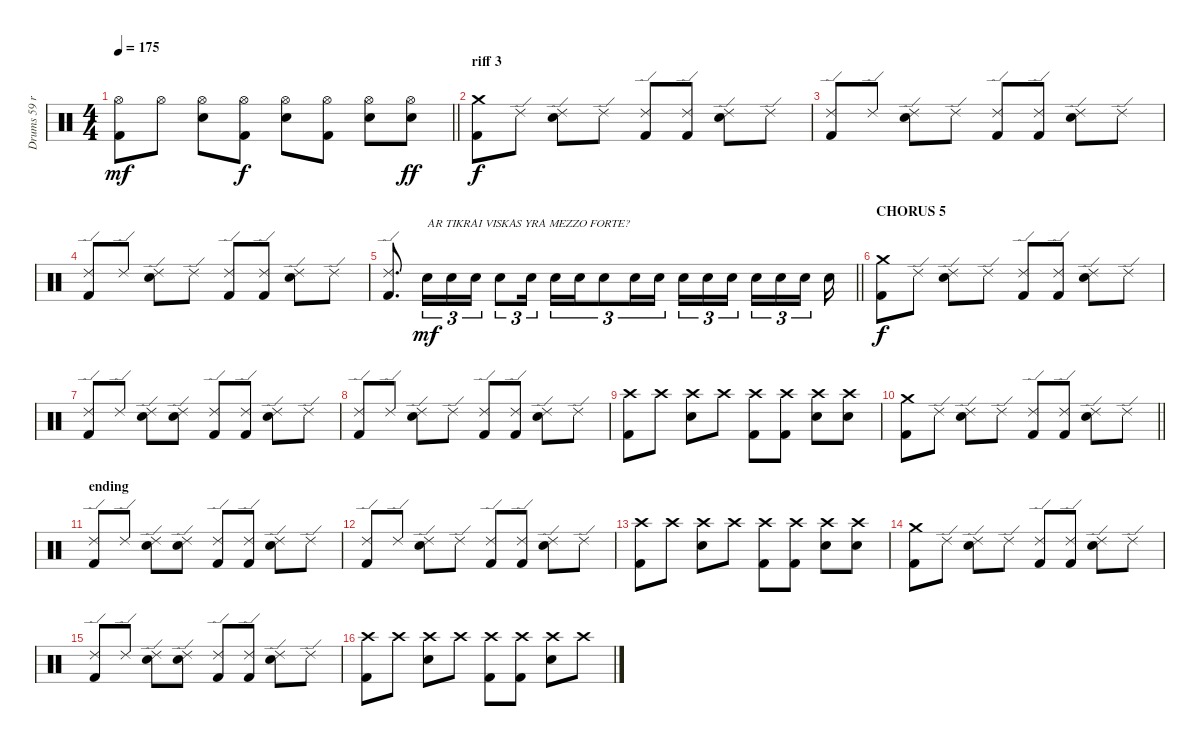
\track ("Drums 59 ride" "Drums 59 r") {instrument percussion}
\staff {score}
\articulation defaults
\ts (4 4)
\tempo 175
\clef neutral
\barLineRight lightlight
\ks c
("Hi-Hat (open)" "Kick (hit) 2").8{dy mf} "Hi-Hat (open)".8 ("Hi-Hat (open)" "Snare (hit) 2").8 ("Hi-Hat (open)" "Kick (hit) 2").8{dy f} ("Hi-Hat (open)" "Snare (hit) 2").8 ("Hi-Hat (open)" "Kick (hit) 2").8 ("Hi-Hat (open)" "Snare (hit) 2").8 ("Hi-Hat (open)" "Snare (hit) 2").8{dy ff} |
\section ("" "riff 3")
("Crash medium (hit)" "Kick (hit) 2").8{dy f} "Ride (edge) 2".8 ("Ride (edge) 2" "Snare (hit) 2").8 "Ride (edge) 2".8 ("Ride (edge) 2" "Kick (hit) 2").8 ("Ride (edge) 2" "Kick (hit) 2").8 ("Ride (edge) 2" "Snare (hit) 2").8 "Ride (edge) 2".8 |
("Ride (edge) 2" "Kick (hit) 2").8 "Ride (edge) 2".8 ("Ride (edge) 2" "Snare (hit) 2").8 "Ride (edge) 2".8 ("Ride (edge) 2" "Kick (hit) 2").8 ("Ride (edge) 2" "Kick (hit) 2").8 ("Ride (edge) 2" "Snare (hit) 2").8 "Ride (edge) 2".8 |
("Ride (edge) 2" "Kick (hit) 2").8 "Ride (edge) 2".8 ("Ride (edge) 2" "Snare (hit) 2").8 "Ride (edge) 2".8 ("Ride (edge) 2" "Kick (hit) 2").8 ("Ride (edge) 2" "Kick (hit) 2").8 ("Ride (edge) 2" "Snare (hit) 2").8 "Ride (edge) 2".8 |
\barLineRight lightlight
("Ride (edge) 2" "Kick (hit) 2").8{d} "Snare (hit) 2".16{tu (3 2) txt "AR TIKRAI VISKAS YRA MEZZO FORTE?" dy mf} "Snare (hit) 2".16{tu (3 2)} "Snare (hit) 2".16{tu (3 2)} "Snare (hit) 2".8{tu (3 2)} "Snare (hit) 2".16{tu (3 2) beam splitsecondary} "Snare (hit) 2".16{tu (3 2)} "Snare (hit) 2".16{tu (3 2)} "Snare (hit) 2".8{tu (3 2)} "Snare (hit) 2".16{tu (3 2)} "Snare (hit) 2".16{tu (3 2) beam splitsecondary} "Snare (hit) 2".16{tu (3 2)} "Snare (hit) 2".16{tu (3 2)} "Snare (hit) 2".16{tu (3 2) beam splitsecondary} "Snare (hit) 2".16{tu (3 2)} "Snare (hit) 2".16{tu (3 2)} "Snare (hit) 2".16{tu (3 2) beam splitsecondary} "Snare (hit) 2".16 |
\section ("" "CHORUS 5")
("Crash medium (hit)" "Kick (hit) 2").8{dy f} "Ride (edge) 2".8 ("Ride (edge) 2" "Snare (hit) 2").8 "Ride (edge) 2".8 ("Ride (edge) 2" "Kick (hit) 2").8 ("Ride (edge) 2" "Kick (hit) 2").8 ("Ride (edge) 2" "Snare (hit) 2").8 "Ride (edge) 2".8 |
("Ride (edge) 2" "Kick (hit) 2").8 "Ride (edge) 2".8 ("Ride (edge) 2" "Snare (hit) 2").8 ("Ride (edge) 2" "Snare (hit) 2").8 ("Ride (edge) 2" "Kick (hit) 2").8 ("Ride (edge) 2" "Kick (hit) 2").8 ("Ride (edge) 2" "Snare (hit) 2").8 "Ride (edge) 2".8 |
("Ride (edge) 2" "Kick (hit) 2").8 "Ride (edge) 2".8 ("Ride (edge) 2" "Snare (hit) 2").8 "Ride (edge) 2".8 ("Ride (edge) 2" "Kick (hit) 2").8 ("Ride (edge) 2" "Kick (hit) 2").8 ("Ride (edge) 2" "Snare (hit) 2").8 "Ride (edge) 2".8 |
("Crash high (hit)" "Kick (hit) 2").8 "Crash high (hit)".8 ("Crash high (hit)" "Snare (hit) 2").8 "Crash high (hit)".8 ("Crash high (hit)" "Kick (hit) 2").8 ("Crash high (hit)" "Kick (hit) 2").8 ("Crash high (hit)" "Snare (hit) 2").8 ("Crash high (hit)" "Snare (hit) 2").8 |
\barLineRight lightlight
("Crash medium (hit)" "Kick (hit) 2").8 "Ride (edge) 2".8 ("Ride (edge) 2" "Snare (hit) 2").8 "Ride (edge) 2".8 ("Ride (edge) 2" "Kick (hit) 2").8 ("Ride (edge) 2" "Kick (hit) 2").8 ("Ride (edge) 2" "Snare (hit) 2").8 "Ride (edge) 2".8 |
\section ("" "ending")
("Ride (edge) 2" "Kick (hit) 2").8 "Ride (edge) 2".8 ("Ride (edge) 2" "Snare (hit) 2").8 ("Ride (edge) 2" "Snare (hit) 2").8 ("Ride (edge) 2" "Kick (hit) 2").8 ("Ride (edge) 2" "Kick (hit) 2").8 ("Ride (edge) 2" "Snare (hit) 2").8 "Ride (edge) 2".8 |
("Ride (edge) 2" "Kick (hit) 2").8 "Ride (edge) 2".8 ("Ride (edge) 2" "Snare (hit) 2").8 "Ride (edge) 2".8 ("Ride (edge) 2" "Kick (hit) 2").8 ("Ride (edge) 2" "Kick (hit) 2").8 ("Ride (edge) 2" "Snare (hit) 2").8 "Ride (edge) 2".8 |
("Crash high (hit)" "Kick (hit) 2").8 "Crash high (hit)".8 ("Crash high (hit)" "Snare (hit) 2").8 "Crash high (hit)".8 ("Crash high (hit)" "Kick (hit) 2").8 ("Crash high (hit)" "Kick (hit) 2").8 ("Crash high (hit)" "Snare (hit) 2").8 ("Crash high (hit)" "Snare (hit) 2").8 |
("Crash medium (hit)" "Kick (hit) 2").8 "Ride (edge) 2".8 ("Ride (edge) 2" "Snare (hit) 2").8 "Ride (edge) 2".8 ("Ride (edge) 2" "Kick (hit) 2").8 ("Ride (edge) 2" "Kick (hit) 2").8 ("Ride (edge) 2" "Snare (hit) 2").8 "Ride (edge) 2".8 |
("Ride (edge) 2" "Kick (hit) 2").8 "Ride (edge) 2".8 ("Ride (edge) 2" "Snare (hit) 2").8 ("Ride (edge) 2" "Snare (hit) 2").8 ("Ride (edge) 2" "Kick (hit) 2").8 ("Ride (edge) 2" "Kick (hit) 2").8 ("Ride (edge) 2" "Snare (hit) 2").8 "Ride (edge) 2".8 |
("Crash high (hit)" "Kick (hit) 2").8 "Crash high (hit)".8 ("Crash high (hit)" "Snare (hit) 2").8 "Crash high (hit)".8 ("Crash high (hit)" "Kick (hit) 2").8 ("Crash high (hit)" "Kick (hit) 2").8 ("Crash high (hit)" "Snare (hit) 2").8 "Crash high (hit)".8
